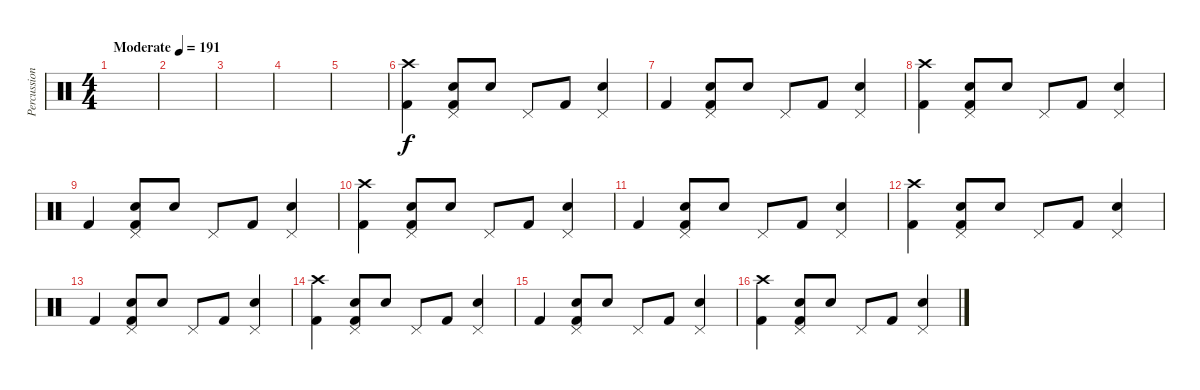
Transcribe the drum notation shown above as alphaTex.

\track ("Percussion" "Percussion") {instrument percussion}
\staff {score}
\articulation defaults
\ts (4 4)
\tempo (191 "Moderate")
\clef neutral
\ks c
|
|
|
|
|
("Crash high (hit)" "Kick (hit) 2").4 ("Pedal Hi-Hat (hit)" "Snare (hit) 2" "Kick (hit) 2").8 "Snare (hit) 2".8 "Pedal Hi-Hat (hit)".8 "Kick (hit) 2".8 ("Pedal Hi-Hat (hit)" "Snare (hit) 2").4 |
"Kick (hit) 2".4 ("Pedal Hi-Hat (hit)" "Snare (hit) 2" "Kick (hit) 2").8 "Snare (hit) 2".8 "Pedal Hi-Hat (hit)".8 "Kick (hit) 2".8 ("Pedal Hi-Hat (hit)" "Snare (hit) 2").4 |
("Crash high (hit)" "Kick (hit) 2").4 ("Pedal Hi-Hat (hit)" "Snare (hit) 2" "Kick (hit) 2").8 "Snare (hit) 2".8 "Pedal Hi-Hat (hit)".8 "Kick (hit) 2".8 ("Pedal Hi-Hat (hit)" "Snare (hit) 2").4 |
"Kick (hit) 2".4 ("Pedal Hi-Hat (hit)" "Snare (hit) 2" "Kick (hit) 2").8 "Snare (hit) 2".8 "Pedal Hi-Hat (hit)".8 "Kick (hit) 2".8 ("Pedal Hi-Hat (hit)" "Snare (hit) 2").4 |
("Crash high (hit)" "Kick (hit) 2").4 ("Pedal Hi-Hat (hit)" "Snare (hit) 2" "Kick (hit) 2").8 "Snare (hit) 2".8 "Pedal Hi-Hat (hit)".8 "Kick (hit) 2".8 ("Pedal Hi-Hat (hit)" "Snare (hit) 2").4 |
"Kick (hit) 2".4 ("Pedal Hi-Hat (hit)" "Snare (hit) 2" "Kick (hit) 2").8 "Snare (hit) 2".8 "Pedal Hi-Hat (hit)".8 "Kick (hit) 2".8 ("Pedal Hi-Hat (hit)" "Snare (hit) 2").4 |
("Crash high (hit)" "Kick (hit) 2").4 ("Pedal Hi-Hat (hit)" "Snare (hit) 2" "Kick (hit) 2").8 "Snare (hit) 2".8 "Pedal Hi-Hat (hit)".8 "Kick (hit) 2".8 ("Pedal Hi-Hat (hit)" "Snare (hit) 2").4 |
"Kick (hit) 2".4 ("Pedal Hi-Hat (hit)" "Snare (hit) 2" "Kick (hit) 2").8 "Snare (hit) 2".8 "Pedal Hi-Hat (hit)".8 "Kick (hit) 2".8 ("Pedal Hi-Hat (hit)" "Snare (hit) 2").4 |
("Crash high (hit)" "Kick (hit) 2").4 ("Pedal Hi-Hat (hit)" "Snare (hit) 2" "Kick (hit) 2").8 "Snare (hit) 2".8 "Pedal Hi-Hat (hit)".8 "Kick (hit) 2".8 ("Pedal Hi-Hat (hit)" "Snare (hit) 2").4 |
"Kick (hit) 2".4 ("Pedal Hi-Hat (hit)" "Snare (hit) 2" "Kick (hit) 2").8 "Snare (hit) 2".8 "Pedal Hi-Hat (hit)".8 "Kick (hit) 2".8 ("Pedal Hi-Hat (hit)" "Snare (hit) 2").4 |
("Crash high (hit)" "Kick (hit) 2").4 ("Pedal Hi-Hat (hit)" "Snare (hit) 2" "Kick (hit) 2").8 "Snare (hit) 2".8 "Pedal Hi-Hat (hit)".8 "Kick (hit) 2".8 ("Pedal Hi-Hat (hit)" "Snare (hit) 2").4
